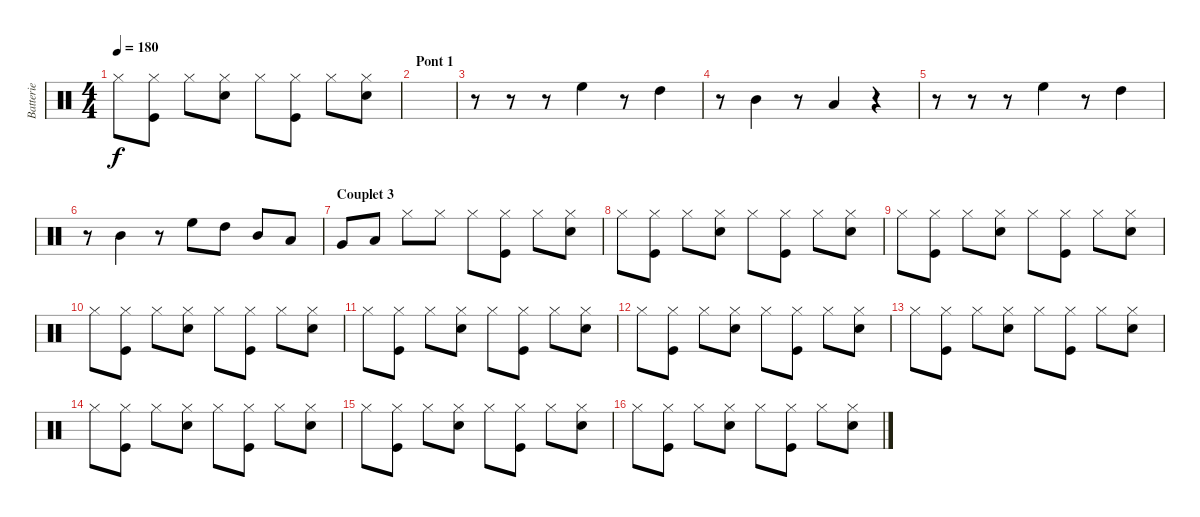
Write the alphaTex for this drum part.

\track ("Batterie" "Batterie") {instrument percussion}
\staff {score}
\articulation defaults
\ts (4 4)
\tempo 180
\clef neutral
\ks c "Hi-Hat (closed)".8{dy f}
("Hi-Hat (closed)" "Kick (hit)").8 "Hi-Hat (closed)".8 ("Hi-Hat (closed)" "Snare (hit) 2").8 "Hi-Hat (closed)".8 ("Hi-Hat (closed)" "Kick (hit)").8 "Hi-Hat (closed)".8 ("Hi-Hat (closed)" "Snare (hit) 2").8 |
\section ("" "Pont 1")
|
r.8 r.8 r.8 "High Floor Tom (hit)".4 r.8 "High Tom (hit)".4 |
r.8 "Mid Tom (hit)".4 r.8 "Low Tom (hit)".4 r.4 |
r.8 r.8 r.8 "High Floor Tom (hit)".4 r.8 "High Tom (hit)".4 |
r.8 "Mid Tom (hit)".4 r.8 "High Floor Tom (hit)".8 "High Tom (hit)".8 "Mid Tom (hit)".8 "Low Tom (hit)".8 |
\section ("" "Couplet 3")
"Very Low Tom (hit)".8 "Low Floor Tom (hit)".8 "Hi-Hat (closed)".8 "Hi-Hat (closed)".8 "Hi-Hat (closed)".8 ("Hi-Hat (closed)" "Kick (hit)").8 "Hi-Hat (closed)".8 ("Hi-Hat (closed)" "Snare (hit) 2").8 |
"Hi-Hat (closed)".8 ("Hi-Hat (closed)" "Kick (hit)").8 "Hi-Hat (closed)".8 ("Hi-Hat (closed)" "Snare (hit) 2").8 "Hi-Hat (closed)".8 ("Hi-Hat (closed)" "Kick (hit)").8 "Hi-Hat (closed)".8 ("Hi-Hat (closed)" "Snare (hit) 2").8 |
"Hi-Hat (closed)".8 ("Hi-Hat (closed)" "Kick (hit)").8 "Hi-Hat (closed)".8 ("Hi-Hat (closed)" "Snare (hit) 2").8 "Hi-Hat (closed)".8 ("Hi-Hat (closed)" "Kick (hit)").8 "Hi-Hat (closed)".8 ("Hi-Hat (closed)" "Snare (hit) 2").8 |
"Hi-Hat (closed)".8 ("Hi-Hat (closed)" "Kick (hit)").8 "Hi-Hat (closed)".8 ("Hi-Hat (closed)" "Snare (hit) 2").8 "Hi-Hat (closed)".8 ("Hi-Hat (closed)" "Kick (hit)").8 "Hi-Hat (closed)".8 ("Hi-Hat (closed)" "Snare (hit) 2").8 |
"Hi-Hat (closed)".8 ("Hi-Hat (closed)" "Kick (hit)").8 "Hi-Hat (closed)".8 ("Hi-Hat (closed)" "Snare (hit) 2").8 "Hi-Hat (closed)".8 ("Hi-Hat (closed)" "Kick (hit)").8 "Hi-Hat (closed)".8 ("Hi-Hat (closed)" "Snare (hit) 2").8 |
"Hi-Hat (closed)".8 ("Hi-Hat (closed)" "Kick (hit)").8 "Hi-Hat (closed)".8 ("Hi-Hat (closed)" "Snare (hit) 2").8 "Hi-Hat (closed)".8 ("Hi-Hat (closed)" "Kick (hit)").8 "Hi-Hat (closed)".8 ("Hi-Hat (closed)" "Snare (hit) 2").8 |
"Hi-Hat (closed)".8 ("Hi-Hat (closed)" "Kick (hit)").8 "Hi-Hat (closed)".8 ("Hi-Hat (closed)" "Snare (hit) 2").8 "Hi-Hat (closed)".8 ("Hi-Hat (closed)" "Kick (hit)").8 "Hi-Hat (closed)".8 ("Hi-Hat (closed)" "Snare (hit) 2").8 |
"Hi-Hat (closed)".8 ("Hi-Hat (closed)" "Kick (hit)").8 "Hi-Hat (closed)".8 ("Hi-Hat (closed)" "Snare (hit) 2").8 "Hi-Hat (closed)".8 ("Hi-Hat (closed)" "Kick (hit)").8 "Hi-Hat (closed)".8 ("Hi-Hat (closed)" "Snare (hit) 2").8 |
"Hi-Hat (closed)".8 ("Hi-Hat (closed)" "Kick (hit)").8 "Hi-Hat (closed)".8 ("Hi-Hat (closed)" "Snare (hit) 2").8 "Hi-Hat (closed)".8 ("Hi-Hat (closed)" "Kick (hit)").8 "Hi-Hat (closed)".8 ("Hi-Hat (closed)" "Snare (hit) 2").8 |
"Hi-Hat (closed)".8 ("Hi-Hat (closed)" "Kick (hit)").8 "Hi-Hat (closed)".8 ("Hi-Hat (closed)" "Snare (hit) 2").8 "Hi-Hat (closed)".8 ("Hi-Hat (closed)" "Kick (hit)").8 "Hi-Hat (closed)".8 ("Hi-Hat (closed)" "Snare (hit) 2").8
